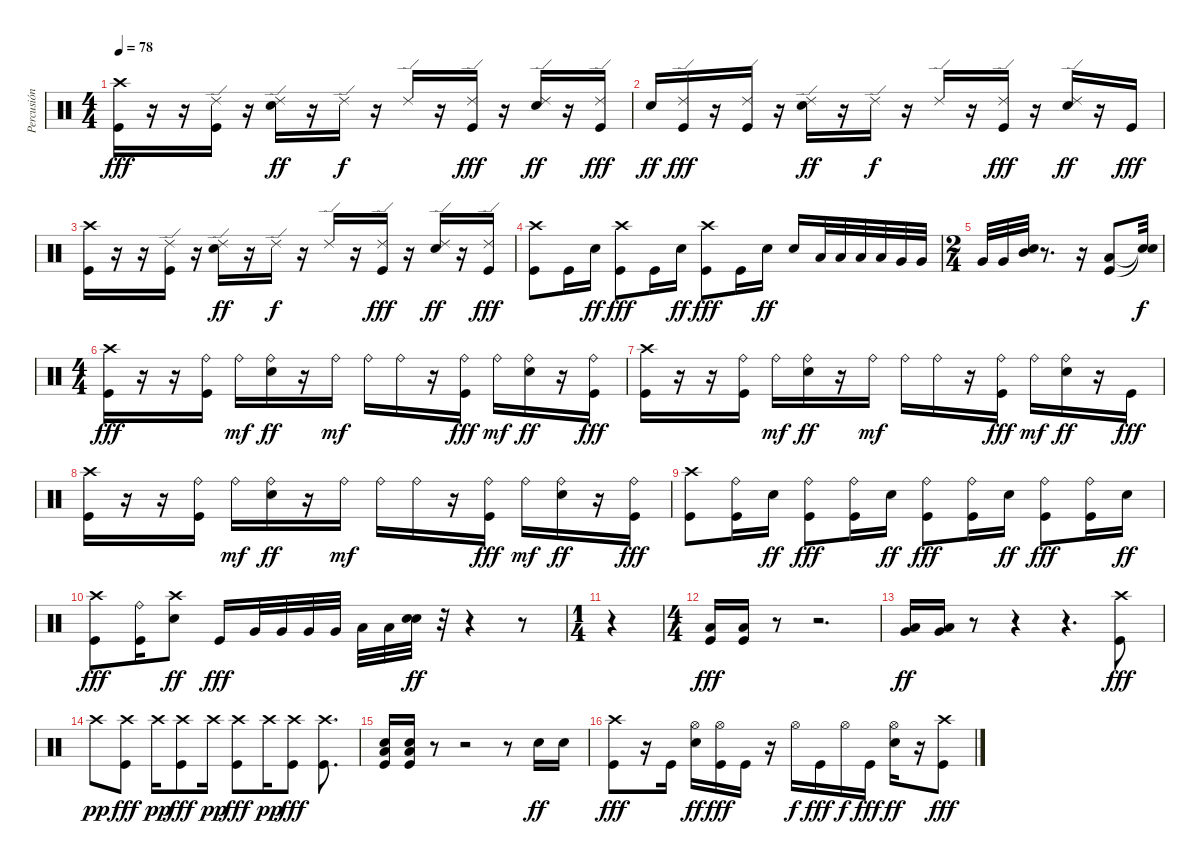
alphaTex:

\track ("Percusión" "Percusión") {instrument percussion}
\staff {score}
\articulation defaults
\ts (4 4)
\tempo 78
\clef neutral
\ks c
("Crash high (hit)" "Kick (hit)").16{dy fff} r.16 r.16 ("Ride (edge) 2" "Kick (hit)").16 r.16 ("Ride (edge) 2" "Snare (hit) 2").16{dy ff} r.16 "Ride (edge) 2".16{dy f} r.16 "Ride (edge) 2".16 r.16 ("Ride (edge) 2" "Kick (hit)").16{dy fff} r.16 ("Ride (edge) 2" "Snare (hit) 2").16{dy ff} r.16 ("Ride (edge) 2" "Kick (hit)").16{dy fff} |
"Snare (hit) 2".16{dy ff} ("Ride (edge) 2" "Kick (hit)").16{dy fff} r.16 ("Ride (edge) 2" "Kick (hit)").16 r.16 ("Ride (edge) 2" "Snare (hit) 2").16{dy ff} r.16 "Ride (edge) 2".16{dy f} r.16 "Ride (edge) 2".16 r.16 ("Ride (edge) 2" "Kick (hit)").16{dy fff} r.16 ("Ride (edge) 2" "Snare (hit) 2").16{dy ff} r.16 "Kick (hit)".16{dy fff} |
("Crash high (hit)" "Kick (hit)").16 r.16 r.16 ("Ride (edge) 2" "Kick (hit)").16 r.16 ("Ride (edge) 2" "Snare (hit) 2").16{dy ff} r.16 "Ride (edge) 2".16{dy f} r.16 "Ride (edge) 2".16 r.16 ("Ride (edge) 2" "Kick (hit)").16{dy fff} r.16 ("Ride (edge) 2" "Snare (hit) 2").16{dy ff} r.16 ("Ride (edge) 2" "Kick (hit)").16{dy fff} |
("Crash high (hit)" "Kick (hit)").8 "Kick (hit)".16 "Snare (hit) 2".16{dy ff} ("Crash high (hit)" "Kick (hit)").8{dy fff} "Kick (hit)".16 "Snare (hit) 2".16{dy ff} ("Crash high (hit)" "Kick (hit)").8{dy fff} "Kick (hit)".16 "Snare (hit) 2".16{dy ff} "Snare (hit) 2".16 "Low Tom (hit)".32 "Low Tom (hit)".32 "Low Tom (hit)".32 "Low Tom (hit)".32 "Very Low Tom (hit)".32 "Very Low Tom (hit)".32 |
\ts (2 4)
"Very Low Tom (hit)".32 "Very Low Tom (hit)".32 ("Snare (hit) 2" "Mid Tom (hit)").32 r.8{d} r.16 ("Low Tom (hit)" "Kick (hit)").8 ("Snare (hit)"{t} "Snare (hit)"{t}).32{dy f} |
\ts (4 4)
("Crash high (hit)" "Kick (hit)").16{dy fff} r.16 r.16 ("Ride (bell)" "Kick (hit)").16 "Ride (bell)".16{dy mf} ("Ride (bell)" "Snare (hit) 2").16{dy ff} r.16 "Ride (bell)".16{dy mf} "Ride (bell)".16 "Ride (bell)".16 r.16 ("Ride (bell)" "Kick (hit)").16{dy fff} "Ride (bell)".16{dy mf} ("Ride (bell)" "Snare (hit) 2").16{dy ff} r.16 ("Ride (bell)" "Kick (hit)").16{dy fff} |
("Crash high (hit)" "Kick (hit)").16 r.16 r.16 ("Ride (bell)" "Kick (hit)").16 "Ride (bell)".16{dy mf} ("Ride (bell)" "Snare (hit) 2").16{dy ff} r.16 "Ride (bell)".16{dy mf} "Ride (bell)".16 "Ride (bell)".16 r.16 ("Ride (bell)" "Kick (hit)").16{dy fff} "Ride (bell)".16{dy mf} ("Ride (bell)" "Snare (hit) 2").16{dy ff} r.16 "Kick (hit)".16{dy fff} |
("Crash high (hit)" "Kick (hit)").16 r.16 r.16 ("Ride (bell)" "Kick (hit)").16 "Ride (bell)".16{dy mf} ("Ride (bell)" "Snare (hit) 2").16{dy ff} r.16 "Ride (bell)".16{dy mf} "Ride (bell)".16 "Ride (bell)".16 r.16 ("Ride (bell)" "Kick (hit)").16{dy fff} "Ride (bell)".16{dy mf} ("Ride (bell)" "Snare (hit) 2").16{dy ff} r.16 ("Ride (bell)" "Kick (hit)").16{dy fff} |
("Crash high (hit)" "Kick (hit)").8 ("Ride (bell)" "Kick (hit)").16 "Snare (hit) 2".16{dy ff} ("Ride (bell)" "Kick (hit)").8{dy fff} ("Ride (bell)" "Kick (hit)").16 "Snare (hit) 2".16{dy ff} ("Ride (bell)" "Kick (hit)").8{dy fff} ("Ride (bell)" "Kick (hit)").16 "Snare (hit) 2".16{dy ff} ("Ride (bell)" "Kick (hit)").8{dy fff} ("Ride (bell)" "Kick (hit)").16 "Snare (hit) 2".16{dy ff} |
("Crash high (hit)" "Kick (hit)").8{dy fff} ("Ride (bell)" "Kick (hit)").16 ("Crash high (hit)" "Snare (hit) 2").8{dy ff} "Kick (hit)".16{dy fff} "Very Low Tom (hit)".32 "Very Low Tom (hit)".32 "Very Low Tom (hit)".32 "Very Low Tom (hit)".32 "Low Tom (hit)".32 "Low Tom (hit)".32 ("Snare (hit) 2" "Snare (hit) 2").32{dy ff} r.32 r.4 r.8 |
\ts (1 4)
r.4 |
\ts (4 4)
("Low Tom (hit)" "Kick (hit)").16{dy fff} ("Low Tom (hit)" "Kick (hit)").16 r.8 r.2{d} |
("Low Floor Tom (hit)" "Very Low Tom (hit)").16{dy ff} ("Low Floor Tom (hit)" "Very Low Tom (hit)").16 r.8 r.4 r.4{d} ("Crash high (hit)" "Kick (hit)").8{dy fff} |
"Crash high (hit)".8{dy pp} ("Crash high (hit)" "Kick (hit)").8{dy fff} "Crash high (hit)".16{dy pp} ("Crash high (hit)" "Kick (hit)").8{dy fff} "Crash high (hit)".16{dy pp} ("Crash high (hit)" "Kick (hit)").8{dy fff} "Crash high (hit)".16{dy pp} ("Crash high (hit)" "Kick (hit)").8{dy fff} ("Crash high (hit)" "Kick (hit)").8{d} |
("Low Floor Tom (hit)" "Snare (hit) 2" "Kick (hit)").16 ("Low Floor Tom (hit)" "Snare (hit) 2" "Kick (hit)").16 r.8 r.2 r.8 "Snare (hit) 2".16{dy ff} "Snare (hit) 2".16 |
("Crash high (hit)" "Kick (hit)").8{dy fff} r.16 "Kick (hit)".16 ("Hi-Hat (open)" "Snare (hit) 2").16{dy ff} ("Hi-Hat (open)" "Kick (hit)").16{dy fff} "Kick (hit)".16 r.16 "Hi-Hat (open)".16{dy f} "Kick (hit)".16{dy fff} "Hi-Hat (open)".16{dy f} "Kick (hit)".16{dy fff} ("Hi-Hat (open)" "Snare (hit) 2").16{dy ff} r.16 ("Crash high (hit)" "Kick (hit)").8{dy fff}
